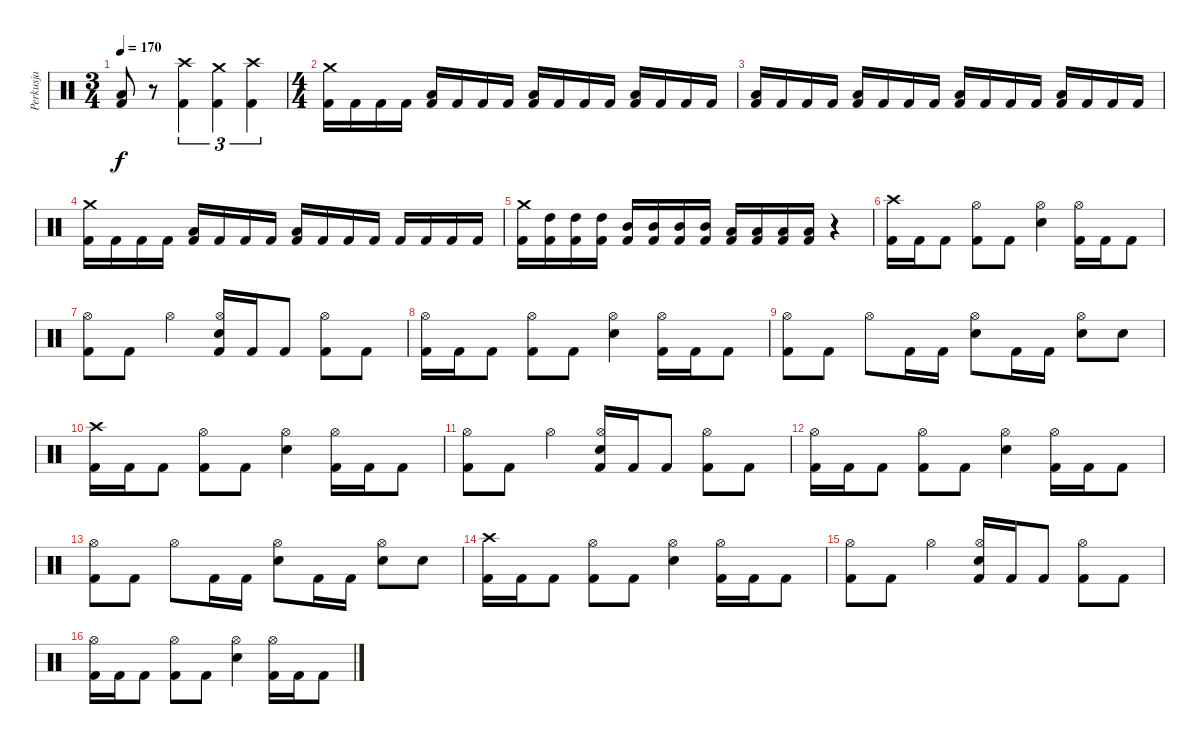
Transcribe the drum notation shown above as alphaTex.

\track ("Perkusja" "Perkusja") {instrument percussion}
\staff {score}
\articulation defaults
\ts (3 4)
\tempo 170
\clef neutral
\ks c
("Low Floor Tom (hit)" "Kick (hit) 2").8{dy f} r.8 ("Crash high (hit)" "Kick (hit) 2").4{tu (3 2)} ("Crash medium (hit)" "Kick (hit) 2").4{tu (3 2)} ("Crash high (hit)" "Kick (hit) 2").4{tu (3 2)} |
\ts (4 4)
("Crash medium (hit)" "Kick (hit) 2").16 "Kick (hit) 2".16 "Kick (hit) 2".16 "Kick (hit) 2".16 ("Low Floor Tom (hit)" "Kick (hit) 2").16 "Kick (hit) 2".16 "Kick (hit) 2".16 "Kick (hit) 2".16 ("Low Floor Tom (hit)" "Kick (hit) 2").16 "Kick (hit) 2".16 "Kick (hit) 2".16 "Kick (hit) 2".16 ("Low Floor Tom (hit)" "Kick (hit) 2").16 "Kick (hit) 2".16 "Kick (hit) 2".16 "Kick (hit) 2".16 |
("Low Floor Tom (hit)" "Kick (hit) 2").16 "Kick (hit) 2".16 "Kick (hit) 2".16 "Kick (hit) 2".16 ("Low Floor Tom (hit)" "Kick (hit) 2").16 "Kick (hit) 2".16 "Kick (hit) 2".16 "Kick (hit) 2".16 ("Low Floor Tom (hit)" "Kick (hit) 2").16 "Kick (hit) 2".16 "Kick (hit) 2".16 "Kick (hit) 2".16 ("Low Floor Tom (hit)" "Kick (hit) 2").16 "Kick (hit) 2".16 "Kick (hit) 2".16 "Kick (hit) 2".16 |
("Crash medium (hit)" "Kick (hit) 2").16 "Kick (hit) 2".16 "Kick (hit) 2".16 "Kick (hit) 2".16 ("Low Floor Tom (hit)" "Kick (hit) 2").16 "Kick (hit) 2".16 "Kick (hit) 2".16 "Kick (hit) 2".16 ("Low Floor Tom (hit)" "Kick (hit) 2").16 "Kick (hit) 2".16 "Kick (hit) 2".16 "Kick (hit) 2".16 "Kick (hit) 2".16 "Kick (hit) 2".16 "Kick (hit) 2".16 "Kick (hit) 2".16 |
("Crash medium (hit)" "Kick (hit) 2").16 ("High Tom (hit)" "Kick (hit) 2").16 ("High Tom (hit)" "Kick (hit) 2").16 ("High Tom (hit)" "Kick (hit) 2").16 ("Mid Tom (hit)" "Kick (hit) 2").16 ("Mid Tom (hit)" "Kick (hit) 2").16 ("Mid Tom (hit)" "Kick (hit) 2").16 ("Mid Tom (hit)" "Kick (hit) 2").16 ("Low Tom (hit)" "Kick (hit) 2").16 ("Low Tom (hit)" "Kick (hit) 2").16 ("Low Tom (hit)" "Kick (hit) 2").16 ("Low Tom (hit)" "Kick (hit) 2").16 r.4 |
("Crash high (hit)" "Kick (hit) 2").16 "Kick (hit) 2".16 "Kick (hit) 2".8 ("Hi-Hat (open)" "Kick (hit) 2").8 "Kick (hit) 2".8 ("Hi-Hat (open)" "Electric Snare (hit)").4 ("Hi-Hat (open)" "Kick (hit) 2").16 "Kick (hit) 2".16 "Kick (hit) 2".8 |
("Hi-Hat (open)" "Kick (hit) 2").8 "Kick (hit) 2".8 "Hi-Hat (open)".4 ("Hi-Hat (open)" "Electric Snare (hit)" "Kick (hit) 2").16 "Kick (hit) 2".16 "Kick (hit) 2".8 ("Hi-Hat (open)" "Kick (hit) 2").8 "Kick (hit) 2".8 |
("Hi-Hat (open)" "Kick (hit) 2").16 "Kick (hit) 2".16 "Kick (hit) 2".8 ("Hi-Hat (open)" "Kick (hit) 2").8 "Kick (hit) 2".8 ("Hi-Hat (open)" "Electric Snare (hit)").4 ("Hi-Hat (open)" "Kick (hit) 2").16 "Kick (hit) 2".16 "Kick (hit) 2".8 |
("Hi-Hat (open)" "Kick (hit) 2").8 "Kick (hit) 2".8 "Hi-Hat (open)".8 "Kick (hit) 2".16 "Kick (hit) 2".16 ("Hi-Hat (open)" "Electric Snare (hit)").8 "Kick (hit) 2".16 "Kick (hit) 2".16 ("Hi-Hat (open)" "Electric Snare (hit)").8 "Electric Snare (hit)".8 |
("Crash high (hit)" "Kick (hit) 2").16 "Kick (hit) 2".16 "Kick (hit) 2".8 ("Hi-Hat (open)" "Kick (hit) 2").8 "Kick (hit) 2".8 ("Hi-Hat (open)" "Electric Snare (hit)").4 ("Hi-Hat (open)" "Kick (hit) 2").16 "Kick (hit) 2".16 "Kick (hit) 2".8 |
("Hi-Hat (open)" "Kick (hit) 2").8 "Kick (hit) 2".8 "Hi-Hat (open)".4 ("Hi-Hat (open)" "Electric Snare (hit)" "Kick (hit) 2").16 "Kick (hit) 2".16 "Kick (hit) 2".8 ("Hi-Hat (open)" "Kick (hit) 2").8 "Kick (hit) 2".8 |
("Hi-Hat (open)" "Kick (hit) 2").16 "Kick (hit) 2".16 "Kick (hit) 2".8 ("Hi-Hat (open)" "Kick (hit) 2").8 "Kick (hit) 2".8 ("Hi-Hat (open)" "Electric Snare (hit)").4 ("Hi-Hat (open)" "Kick (hit) 2").16 "Kick (hit) 2".16 "Kick (hit) 2".8 |
("Hi-Hat (open)" "Kick (hit) 2").8 "Kick (hit) 2".8 "Hi-Hat (open)".8 "Kick (hit) 2".16 "Kick (hit) 2".16 ("Hi-Hat (open)" "Electric Snare (hit)").8 "Kick (hit) 2".16 "Kick (hit) 2".16 ("Hi-Hat (open)" "Electric Snare (hit)").8 "Electric Snare (hit)".8 |
("Crash high (hit)" "Kick (hit) 2").16 "Kick (hit) 2".16 "Kick (hit) 2".8 ("Hi-Hat (open)" "Kick (hit) 2").8 "Kick (hit) 2".8 ("Hi-Hat (open)" "Electric Snare (hit)").4 ("Hi-Hat (open)" "Kick (hit) 2").16 "Kick (hit) 2".16 "Kick (hit) 2".8 |
("Hi-Hat (open)" "Kick (hit) 2").8 "Kick (hit) 2".8 "Hi-Hat (open)".4 ("Hi-Hat (open)" "Electric Snare (hit)" "Kick (hit) 2").16 "Kick (hit) 2".16 "Kick (hit) 2".8 ("Hi-Hat (open)" "Kick (hit) 2").8 "Kick (hit) 2".8 |
("Hi-Hat (open)" "Kick (hit) 2").16 "Kick (hit) 2".16 "Kick (hit) 2".8 ("Hi-Hat (open)" "Kick (hit) 2").8 "Kick (hit) 2".8 ("Hi-Hat (open)" "Electric Snare (hit)").4 ("Hi-Hat (open)" "Kick (hit) 2").16 "Kick (hit) 2".16 "Kick (hit) 2".8
